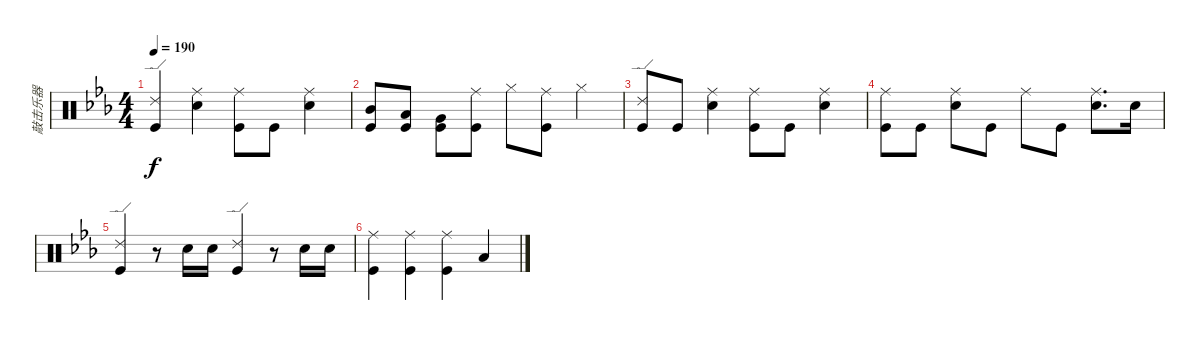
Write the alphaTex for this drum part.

\track ("敲击乐器" "敲击乐器") {instrument percussion}
\staff {score}
\articulation defaults
\ts (4 4)
\tempo 190
\clef neutral
\ks eb
("Ride (edge) 2" "Kick (hit)").4{dy f} ("Ride (middle)" "Snare (hit) 2").4 ("Ride (middle)" "Kick (hit)").8 "Kick (hit)".8 ("Ride (middle)" "Snare (hit) 2").4 |
("Mid Tom (hit)" "Kick (hit)").8 ("Low Tom (hit)" "Kick (hit)").8 ("Very Low Tom (hit)" "Kick (hit)").8 ("Ride (middle)" "Kick (hit)").8 "Hi-Hat (closed)".8 ("Ride (middle)" "Kick (hit)").8 "Hi-Hat (closed)".4 |
("Ride (edge) 2" "Kick (hit)").8 "Kick (hit)".8 ("Ride (middle)" "Snare (hit) 2").4 ("Ride (middle)" "Kick (hit)").8 "Kick (hit)".8 ("Ride (middle)" "Snare (hit) 2").4 |
("Ride (middle)" "Kick (hit)").8 "Kick (hit)".8 ("Ride (middle)" "Snare (hit) 2").8 "Kick (hit)".8 "Ride (middle)".8 "Kick (hit)".8 ("Ride (middle)" "Snare (hit) 2").8{d} "Snare (hit) 2".16 |
("Ride (edge) 2" "Kick (hit)").4 r.8 "Snare (hit) 2".16 "Snare (hit) 2".16 ("Ride (edge) 2" "Kick (hit)").4 r.8 "Snare (hit) 2".16 "Snare (hit) 2".16 |
("Ride (middle)" "Kick (hit)").4 ("Ride (middle)" "Kick (hit)").4 ("Ride (middle)" "Kick (hit)").4 "Low Tom (hit)".4
